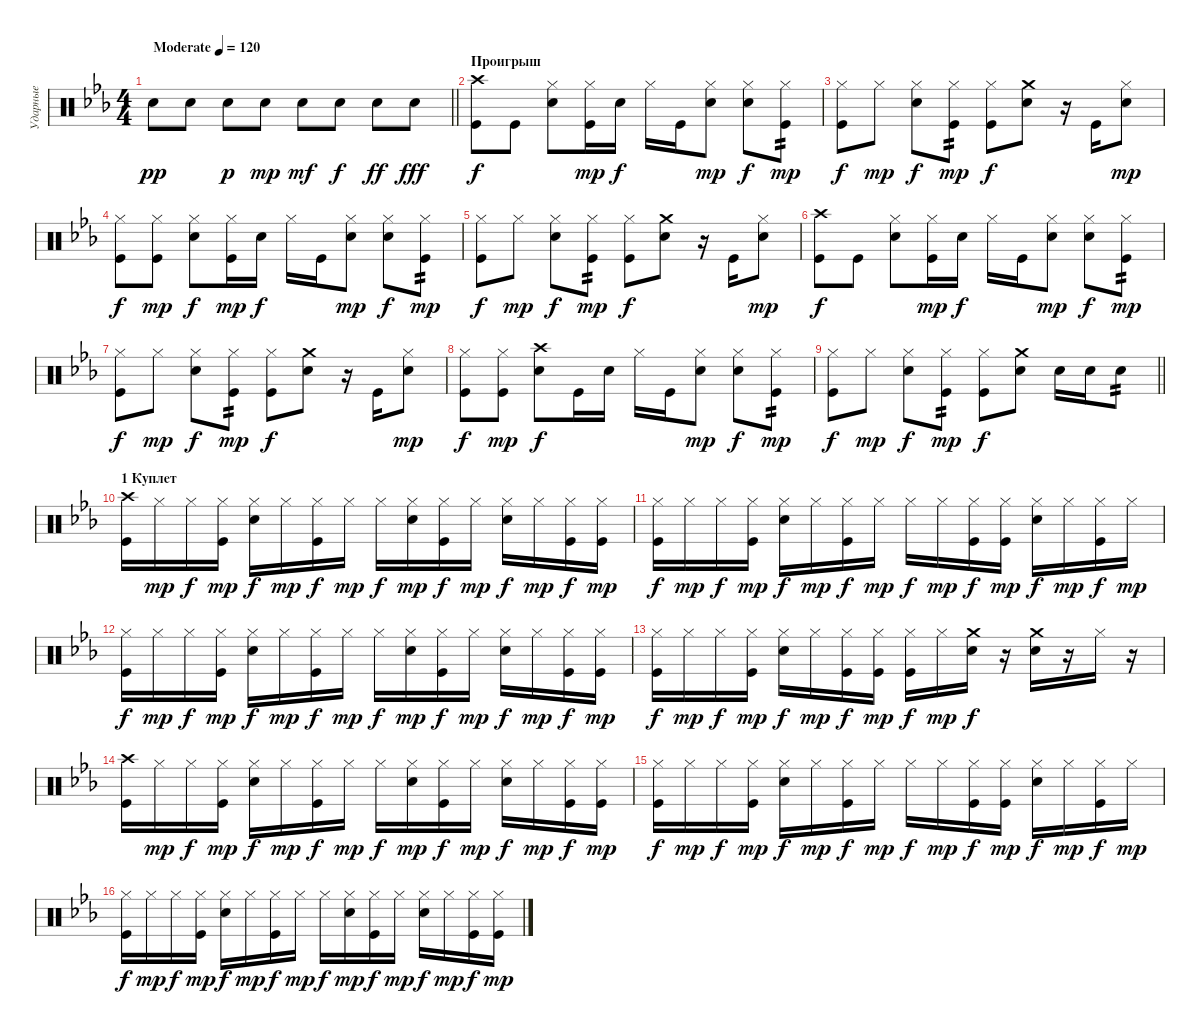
\track ("Ударные" "Ударные") {instrument percussion}
\staff {score}
\articulation defaults
\ts (4 4)
\tempo (120 "Moderate")
\clef neutral
\barLineRight lightlight
\ks cminor "Snare (hit) 2".8{dy pp} "Snare (hit) 2".8 "Snare (hit) 2".8{dy p} "Snare (hit) 2".8{dy mp} "Snare (hit) 2".8{dy mf} "Snare (hit) 2".8{dy f} "Snare (hit) 2".8{dy ff} "Snare (hit) 2".8{dy fff}
|
\section ("" "Проигрыш")
("Crash high (hit)" "Kick (hit)").8{dy f} "Kick (hit)".8 ("Hi-Hat (closed)" "Snare (hit) 2").8 ("Hi-Hat (closed)" "Kick (hit)").16{dy mp} "Snare (hit) 2".16{dy f} "Hi-Hat (closed)".16 "Kick (hit)".16 ("Hi-Hat (closed)" "Snare (hit) 2").8{dy mp} ("Hi-Hat (closed)" "Snare (hit) 2").8{dy f} ("Hi-Hat (closed)" "Kick (hit)").8{tp 2 dy mp} |
("Hi-Hat (closed)" "Kick (hit)").8{dy f} "Hi-Hat (closed)".8{dy mp} ("Hi-Hat (closed)" "Snare (hit) 2").8{dy f} ("Hi-Hat (closed)" "Kick (hit)").8{tp 2 dy mp} ("Hi-Hat (closed)" "Kick (hit)").8{dy f} ("Crash medium (hit)" "Snare (hit) 2").8 r.16 "Kick (hit)".16 ("Hi-Hat (closed)" "Snare (hit) 2").8{dy mp} |
("Hi-Hat (closed)" "Kick (hit)").8{dy f} ("Hi-Hat (closed)" "Kick (hit)").8{dy mp} ("Hi-Hat (closed)" "Snare (hit) 2").8{dy f} ("Hi-Hat (closed)" "Kick (hit)").16{dy mp} "Snare (hit) 2".16{dy f} "Hi-Hat (closed)".16 "Kick (hit)".16 ("Hi-Hat (closed)" "Snare (hit) 2").8{dy mp} ("Hi-Hat (closed)" "Snare (hit) 2").8{dy f} ("Hi-Hat (closed)" "Kick (hit)").8{tp 2 dy mp} |
("Hi-Hat (closed)" "Kick (hit)").8{dy f} "Hi-Hat (closed)".8{dy mp} ("Hi-Hat (closed)" "Snare (hit) 2").8{dy f} ("Hi-Hat (closed)" "Kick (hit)").8{tp 2 dy mp} ("Hi-Hat (closed)" "Kick (hit)").8{dy f} ("Crash medium (hit)" "Snare (hit) 2").8 r.16 "Kick (hit)".16 ("Hi-Hat (closed)" "Snare (hit) 2").8{dy mp} |
("Crash high (hit)" "Kick (hit)").8{dy f} "Kick (hit)".8 ("Hi-Hat (closed)" "Snare (hit) 2").8 ("Hi-Hat (closed)" "Kick (hit)").16{dy mp} "Snare (hit) 2".16{dy f} "Hi-Hat (closed)".16 "Kick (hit)".16 ("Hi-Hat (closed)" "Snare (hit) 2").8{dy mp} ("Hi-Hat (closed)" "Snare (hit) 2").8{dy f} ("Hi-Hat (closed)" "Kick (hit)").8{tp 2 dy mp} |
("Hi-Hat (closed)" "Kick (hit)").8{dy f} "Hi-Hat (closed)".8{dy mp} ("Hi-Hat (closed)" "Snare (hit) 2").8{dy f} ("Hi-Hat (closed)" "Kick (hit)").8{tp 2 dy mp} ("Hi-Hat (closed)" "Kick (hit)").8{dy f} ("Crash medium (hit)" "Snare (hit) 2").8 r.16 "Kick (hit)".16 ("Hi-Hat (closed)" "Snare (hit) 2").8{dy mp} |
("Hi-Hat (closed)" "Kick (hit)").8{dy f} ("Hi-Hat (closed)" "Kick (hit)").8{dy mp} ("Crash high (hit)" "Snare (hit) 2").8{dy f} "Kick (hit)".16 "Snare (hit) 2".16 "Hi-Hat (closed)".16 "Kick (hit)".16 ("Hi-Hat (closed)" "Snare (hit) 2").8{dy mp} ("Hi-Hat (closed)" "Snare (hit) 2").8{dy f} ("Hi-Hat (closed)" "Kick (hit)").8{tp 2 dy mp} |
\barLineRight lightlight
("Hi-Hat (closed)" "Kick (hit)").8{dy f} "Hi-Hat (closed)".8{dy mp} ("Hi-Hat (closed)" "Snare (hit) 2").8{dy f} ("Hi-Hat (closed)" "Kick (hit)").8{tp 2 dy mp} ("Hi-Hat (closed)" "Kick (hit)").8{dy f} ("Crash medium (hit)" "Snare (hit) 2").8 "Snare (hit) 2".16 "Snare (hit) 2".16 "Snare (hit) 2".8{tp 2} |
\section ("" "1 Куплет")
("Crash high (hit)" "Kick (hit)").16 "Hi-Hat (closed)".16{dy mp} "Hi-Hat (closed)".16{dy f} ("Hi-Hat (closed)" "Kick (hit)").16{dy mp} ("Hi-Hat (closed)" "Snare (hit) 2").16{dy f} "Hi-Hat (closed)".16{dy mp} ("Hi-Hat (closed)" "Kick (hit)").16{dy f} "Hi-Hat (closed)".16{dy mp} "Hi-Hat (closed)".16{dy f} ("Hi-Hat (closed)" "Snare (hit) 2").16{dy mp} ("Hi-Hat (closed)" "Kick (hit)").16{dy f} "Hi-Hat (closed)".16{dy mp} ("Hi-Hat (closed)" "Snare (hit) 2").16{dy f} "Hi-Hat (closed)".16{dy mp} ("Hi-Hat (closed)" "Kick (hit)").16{dy f} ("Hi-Hat (closed)" "Kick (hit)").16{dy mp} |
("Hi-Hat (closed)" "Kick (hit)").16{dy f} "Hi-Hat (closed)".16{dy mp} "Hi-Hat (closed)".16{dy f} ("Hi-Hat (closed)" "Kick (hit)").16{dy mp} ("Hi-Hat (closed)" "Snare (hit) 2").16{dy f} "Hi-Hat (closed)".16{dy mp} ("Hi-Hat (closed)" "Kick (hit)").16{dy f} "Hi-Hat (closed)".16{dy mp} "Hi-Hat (closed)".16{dy f} "Hi-Hat (closed)".16{dy mp} ("Hi-Hat (closed)" "Kick (hit)").16{dy f} ("Hi-Hat (closed)" "Kick (hit)").16{dy mp} ("Hi-Hat (closed)" "Snare (hit) 2").16{dy f} "Hi-Hat (closed)".16{dy mp} ("Hi-Hat (closed)" "Kick (hit)").16{dy f} "Hi-Hat (closed)".16{dy mp} |
("Hi-Hat (closed)" "Kick (hit)").16{dy f} "Hi-Hat (closed)".16{dy mp} "Hi-Hat (closed)".16{dy f} ("Hi-Hat (closed)" "Kick (hit)").16{dy mp} ("Hi-Hat (closed)" "Snare (hit) 2").16{dy f} "Hi-Hat (closed)".16{dy mp} ("Hi-Hat (closed)" "Kick (hit)").16{dy f} "Hi-Hat (closed)".16{dy mp} "Hi-Hat (closed)".16{dy f} ("Hi-Hat (closed)" "Snare (hit) 2").16{dy mp} ("Hi-Hat (closed)" "Kick (hit)").16{dy f} "Hi-Hat (closed)".16{dy mp} ("Hi-Hat (closed)" "Snare (hit) 2").16{dy f} "Hi-Hat (closed)".16{dy mp} ("Hi-Hat (closed)" "Kick (hit)").16{dy f} ("Hi-Hat (closed)" "Kick (hit)").16{dy mp} |
("Hi-Hat (closed)" "Kick (hit)").16{dy f} "Hi-Hat (closed)".16{dy mp} "Hi-Hat (closed)".16{dy f} ("Hi-Hat (closed)" "Kick (hit)").16{dy mp} ("Hi-Hat (closed)" "Snare (hit) 2").16{dy f} "Hi-Hat (closed)".16{dy mp} ("Hi-Hat (closed)" "Kick (hit)").16{dy f} ("Hi-Hat (closed)" "Kick (hit)").16{dy mp} ("Hi-Hat (closed)" "Kick (hit)").16{dy f} "Hi-Hat (closed)".16{dy mp} ("Crash medium (hit)" "Snare (hit) 2").16{dy f} r.16 ("Crash medium (hit)" "Snare (hit) 2").16 r.16 "Hi-Hat (closed)".16 r.16 |
("Crash high (hit)" "Kick (hit)").16 "Hi-Hat (closed)".16{dy mp} "Hi-Hat (closed)".16{dy f} ("Hi-Hat (closed)" "Kick (hit)").16{dy mp} ("Hi-Hat (closed)" "Snare (hit) 2").16{dy f} "Hi-Hat (closed)".16{dy mp} ("Hi-Hat (closed)" "Kick (hit)").16{dy f} "Hi-Hat (closed)".16{dy mp} "Hi-Hat (closed)".16{dy f} ("Hi-Hat (closed)" "Snare (hit) 2").16{dy mp} ("Hi-Hat (closed)" "Kick (hit)").16{dy f} "Hi-Hat (closed)".16{dy mp} ("Hi-Hat (closed)" "Snare (hit) 2").16{dy f} "Hi-Hat (closed)".16{dy mp} ("Hi-Hat (closed)" "Kick (hit)").16{dy f} ("Hi-Hat (closed)" "Kick (hit)").16{dy mp} |
("Hi-Hat (closed)" "Kick (hit)").16{dy f} "Hi-Hat (closed)".16{dy mp} "Hi-Hat (closed)".16{dy f} ("Hi-Hat (closed)" "Kick (hit)").16{dy mp} ("Hi-Hat (closed)" "Snare (hit) 2").16{dy f} "Hi-Hat (closed)".16{dy mp} ("Hi-Hat (closed)" "Kick (hit)").16{dy f} "Hi-Hat (closed)".16{dy mp} "Hi-Hat (closed)".16{dy f} "Hi-Hat (closed)".16{dy mp} ("Hi-Hat (closed)" "Kick (hit)").16{dy f} ("Hi-Hat (closed)" "Kick (hit)").16{dy mp} ("Hi-Hat (closed)" "Snare (hit) 2").16{dy f} "Hi-Hat (closed)".16{dy mp} ("Hi-Hat (closed)" "Kick (hit)").16{dy f} "Hi-Hat (closed)".16{dy mp} |
("Hi-Hat (closed)" "Kick (hit)").16{dy f} "Hi-Hat (closed)".16{dy mp} "Hi-Hat (closed)".16{dy f} ("Hi-Hat (closed)" "Kick (hit)").16{dy mp} ("Hi-Hat (closed)" "Snare (hit) 2").16{dy f} "Hi-Hat (closed)".16{dy mp} ("Hi-Hat (closed)" "Kick (hit)").16{dy f} "Hi-Hat (closed)".16{dy mp} "Hi-Hat (closed)".16{dy f} ("Hi-Hat (closed)" "Snare (hit) 2").16{dy mp} ("Hi-Hat (closed)" "Kick (hit)").16{dy f} "Hi-Hat (closed)".16{dy mp} ("Hi-Hat (closed)" "Snare (hit) 2").16{dy f} "Hi-Hat (closed)".16{dy mp} ("Hi-Hat (closed)" "Kick (hit)").16{dy f} ("Hi-Hat (closed)" "Kick (hit)").16{dy mp}
